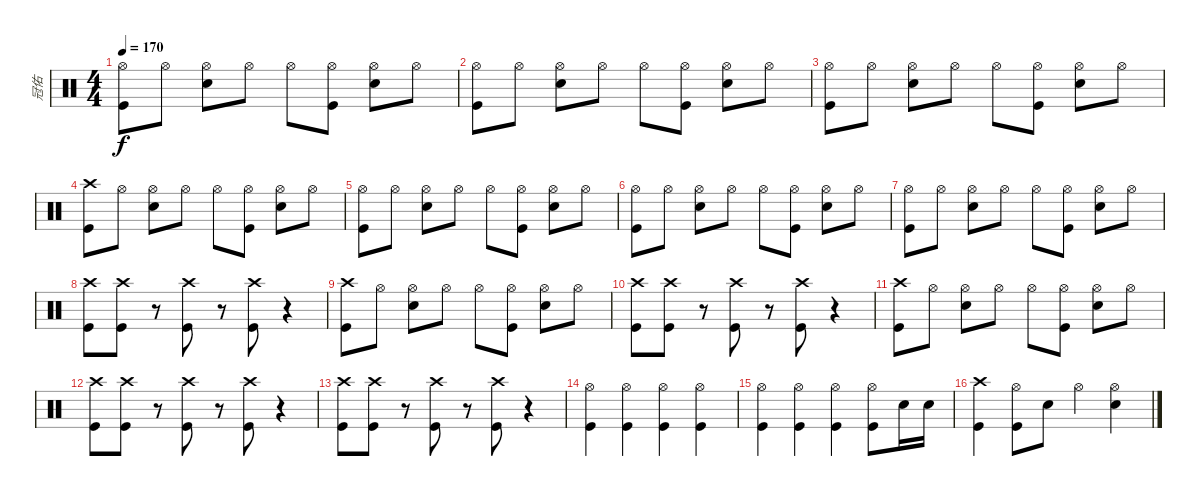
\track ("冠佑" "冠佑") {instrument percussion}
\staff {score}
\articulation defaults
\ts (4 4)
\tempo 170
\clef neutral
\ks c
("Hi-Hat (open)" "Kick (hit)").8{dy f} "Hi-Hat (open)".8 ("Hi-Hat (open)" "Snare (hit) 2").8 "Hi-Hat (open)".8 "Hi-Hat (open)".8 ("Hi-Hat (open)" "Kick (hit)").8 ("Hi-Hat (open)" "Snare (hit) 2").8 "Hi-Hat (open)".8 |
("Hi-Hat (open)" "Kick (hit)").8 "Hi-Hat (open)".8 ("Hi-Hat (open)" "Snare (hit) 2").8 "Hi-Hat (open)".8 "Hi-Hat (open)".8 ("Hi-Hat (open)" "Kick (hit)").8 ("Hi-Hat (open)" "Snare (hit) 2").8 "Hi-Hat (open)".8 |
("Hi-Hat (open)" "Kick (hit)").8 "Hi-Hat (open)".8 ("Hi-Hat (open)" "Snare (hit) 2").8 "Hi-Hat (open)".8 "Hi-Hat (open)".8 ("Hi-Hat (open)" "Kick (hit)").8 ("Hi-Hat (open)" "Snare (hit) 2").8 "Hi-Hat (open)".8 |
("Crash high (hit)" "Kick (hit)").8 "Hi-Hat (open)".8 ("Hi-Hat (open)" "Snare (hit) 2").8 "Hi-Hat (open)".8 "Hi-Hat (open)".8 ("Hi-Hat (open)" "Kick (hit)").8 ("Hi-Hat (open)" "Snare (hit) 2").8 "Hi-Hat (open)".8 |
("Hi-Hat (open)" "Kick (hit)").8 "Hi-Hat (open)".8 ("Hi-Hat (open)" "Snare (hit) 2").8 "Hi-Hat (open)".8 "Hi-Hat (open)".8 ("Hi-Hat (open)" "Kick (hit)").8 ("Hi-Hat (open)" "Snare (hit) 2").8 "Hi-Hat (open)".8 |
("Hi-Hat (open)" "Kick (hit)").8 "Hi-Hat (open)".8 ("Hi-Hat (open)" "Snare (hit) 2").8 "Hi-Hat (open)".8 "Hi-Hat (open)".8 ("Hi-Hat (open)" "Kick (hit)").8 ("Hi-Hat (open)" "Snare (hit) 2").8 "Hi-Hat (open)".8 |
("Hi-Hat (open)" "Kick (hit)").8 "Hi-Hat (open)".8 ("Hi-Hat (open)" "Snare (hit) 2").8 "Hi-Hat (open)".8 "Hi-Hat (open)".8 ("Hi-Hat (open)" "Kick (hit)").8 ("Hi-Hat (open)" "Snare (hit) 2").8 "Hi-Hat (open)".8 |
("Crash high (hit)" "Kick (hit)").8 ("Crash high (hit)" "Kick (hit)").8 r.8 ("Crash high (hit)" "Kick (hit)").8 r.8 ("Crash high (hit)" "Kick (hit)").8 r.4 |
("Crash high (hit)" "Kick (hit)").8 "Hi-Hat (open)".8 ("Hi-Hat (open)" "Snare (hit) 2").8 "Hi-Hat (open)".8 "Hi-Hat (open)".8 ("Hi-Hat (open)" "Kick (hit)").8 ("Hi-Hat (open)" "Snare (hit) 2").8 "Hi-Hat (open)".8 |
("Crash high (hit)" "Kick (hit)").8 ("Crash high (hit)" "Kick (hit)").8 r.8 ("Crash high (hit)" "Kick (hit)").8 r.8 ("Crash high (hit)" "Kick (hit)").8 r.4 |
("Crash high (hit)" "Kick (hit)").8 "Hi-Hat (open)".8 ("Hi-Hat (open)" "Snare (hit) 2").8 "Hi-Hat (open)".8 "Hi-Hat (open)".8 ("Hi-Hat (open)" "Kick (hit)").8 ("Hi-Hat (open)" "Snare (hit) 2").8 "Hi-Hat (open)".8 |
("Crash high (hit)" "Kick (hit)").8 ("Crash high (hit)" "Kick (hit)").8 r.8 ("Crash high (hit)" "Kick (hit)").8 r.8 ("Crash high (hit)" "Kick (hit)").8 r.4 |
("Crash high (hit)" "Kick (hit)").8 ("Crash high (hit)" "Kick (hit)").8 r.8 ("Crash high (hit)" "Kick (hit)").8 r.8 ("Crash high (hit)" "Kick (hit)").8 r.4 |
("Hi-Hat (open)" "Kick (hit)").4 ("Hi-Hat (open)" "Kick (hit)").4 ("Hi-Hat (open)" "Kick (hit)").4 ("Hi-Hat (open)" "Kick (hit)").4 |
("Hi-Hat (open)" "Kick (hit)").4 ("Hi-Hat (open)" "Kick (hit)").4 ("Hi-Hat (open)" "Kick (hit)").4 ("Hi-Hat (open)" "Kick (hit)").8 "Snare (hit) 2".16 "Snare (hit) 2".16 |
("Crash high (hit)" "Kick (hit)").4 ("Hi-Hat (open)" "Kick (hit)").8 "Snare (hit) 2".8 "Hi-Hat (open)".4 ("Hi-Hat (open)" "Snare (hit) 2").4
